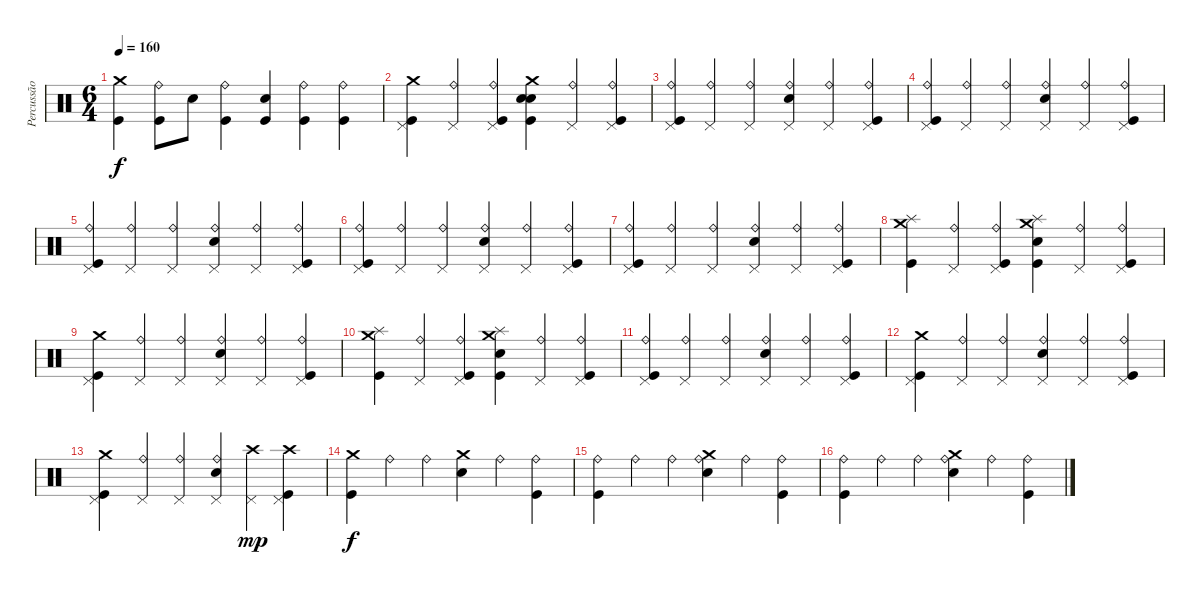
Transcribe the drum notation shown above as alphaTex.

\track ("Percussão" "Percussão") {instrument percussion}
\staff {score}
\articulation defaults
\ts (6 4)
\tempo 160
\clef neutral
\ks c
("Crash medium (hit)" "Kick (hit)").4{dy f balance 4} ("Ride (bell)" "Kick (hit)").8{balance 12} "Snare (hit) 2".8{balance 4} ("Ride (bell)" "Kick (hit)").4{balance 8} ("Kick (hit)" "Snare (hit) 2").4 ("Ride (bell)" "Kick (hit)").4 ("Ride (bell)" "Kick (hit)").4 |
("Crash medium (hit)" "Pedal Hi-Hat (hit)" "Kick (hit)").4 ("Ride (bell)" "Pedal Hi-Hat (hit)").4 ("Ride (bell)" "Pedal Hi-Hat (hit)" "Kick (hit)").4 ("Crash medium (hit)" "Snare (hit) 2" "Snare (hit) 2" "Kick (hit)").4 ("Ride (bell)" "Pedal Hi-Hat (hit)").4 ("Ride (bell)" "Pedal Hi-Hat (hit)" "Kick (hit)").4 |
("Ride (bell)" "Pedal Hi-Hat (hit)" "Kick (hit)").4 ("Ride (bell)" "Pedal Hi-Hat (hit)").4 ("Ride (bell)" "Pedal Hi-Hat (hit)").4 ("Ride (bell)" "Pedal Hi-Hat (hit)" "Snare (hit) 2").4 ("Ride (bell)" "Pedal Hi-Hat (hit)").4 ("Ride (bell)" "Pedal Hi-Hat (hit)" "Kick (hit)").4 |
("Ride (bell)" "Pedal Hi-Hat (hit)" "Kick (hit)").4 ("Ride (bell)" "Pedal Hi-Hat (hit)").4 ("Ride (bell)" "Pedal Hi-Hat (hit)").4 ("Ride (bell)" "Pedal Hi-Hat (hit)" "Snare (hit) 2").4 ("Ride (bell)" "Pedal Hi-Hat (hit)").4 ("Ride (bell)" "Pedal Hi-Hat (hit)" "Kick (hit)").4 |
("Ride (bell)" "Pedal Hi-Hat (hit)" "Kick (hit)").4 ("Ride (bell)" "Pedal Hi-Hat (hit)").4 ("Ride (bell)" "Pedal Hi-Hat (hit)").4 ("Ride (bell)" "Pedal Hi-Hat (hit)" "Snare (hit) 2").4 ("Ride (bell)" "Pedal Hi-Hat (hit)").4 ("Ride (bell)" "Pedal Hi-Hat (hit)" "Kick (hit)").4 |
("Ride (bell)" "Pedal Hi-Hat (hit)" "Kick (hit)").4 ("Ride (bell)" "Pedal Hi-Hat (hit)").4 ("Ride (bell)" "Pedal Hi-Hat (hit)").4 ("Ride (bell)" "Pedal Hi-Hat (hit)" "Snare (hit) 2").4 ("Ride (bell)" "Pedal Hi-Hat (hit)").4 ("Ride (bell)" "Pedal Hi-Hat (hit)" "Kick (hit)").4 |
("Ride (bell)" "Pedal Hi-Hat (hit)" "Kick (hit)").4 ("Ride (bell)" "Pedal Hi-Hat (hit)").4 ("Ride (bell)" "Pedal Hi-Hat (hit)").4 ("Ride (bell)" "Pedal Hi-Hat (hit)" "Snare (hit) 2").4 ("Ride (bell)" "Pedal Hi-Hat (hit)").4 ("Ride (bell)" "Pedal Hi-Hat (hit)" "Kick (hit)").4 |
("Crash medium (hit)" "Splash (hit)" "Kick (hit)").4 ("Ride (bell)" "Pedal Hi-Hat (hit)").4 ("Ride (bell)" "Pedal Hi-Hat (hit)" "Kick (hit)").4 ("Crash medium (hit)" "Splash (hit)" "Snare (hit) 2" "Kick (hit)").4 ("Ride (bell)" "Pedal Hi-Hat (hit)").4 ("Ride (bell)" "Pedal Hi-Hat (hit)" "Kick (hit)").4 |
("Crash medium (hit)" "Pedal Hi-Hat (hit)" "Kick (hit)").4 ("Ride (bell)" "Pedal Hi-Hat (hit)").4 ("Ride (bell)" "Pedal Hi-Hat (hit)").4 ("Ride (bell)" "Pedal Hi-Hat (hit)" "Snare (hit) 2").4 ("Ride (bell)" "Pedal Hi-Hat (hit)").4 ("Ride (bell)" "Pedal Hi-Hat (hit)" "Kick (hit)").4 |
("Crash medium (hit)" "Splash (hit)" "Kick (hit)").4 ("Ride (bell)" "Pedal Hi-Hat (hit)").4 ("Ride (bell)" "Pedal Hi-Hat (hit)" "Kick (hit)").4 ("Crash medium (hit)" "Splash (hit)" "Snare (hit) 2" "Kick (hit)").4 ("Ride (bell)" "Pedal Hi-Hat (hit)").4 ("Ride (bell)" "Pedal Hi-Hat (hit)" "Kick (hit)").4 |
("Ride (bell)" "Pedal Hi-Hat (hit)" "Kick (hit)").4 ("Ride (bell)" "Pedal Hi-Hat (hit)").4 ("Ride (bell)" "Pedal Hi-Hat (hit)").4 ("Ride (bell)" "Pedal Hi-Hat (hit)" "Snare (hit) 2").4 ("Ride (bell)" "Pedal Hi-Hat (hit)").4 ("Ride (bell)" "Pedal Hi-Hat (hit)" "Kick (hit)").4 |
("Crash medium (hit)" "Pedal Hi-Hat (hit)" "Kick (hit)").4 ("Ride (bell)" "Pedal Hi-Hat (hit)").4 ("Ride (bell)" "Pedal Hi-Hat (hit)").4 ("Ride (bell)" "Pedal Hi-Hat (hit)" "Snare (hit) 2").4 ("Ride (bell)" "Pedal Hi-Hat (hit)").4 ("Ride (bell)" "Pedal Hi-Hat (hit)" "Kick (hit)").4 |
("Crash medium (hit)" "Pedal Hi-Hat (hit)" "Kick (hit)").4 ("Ride (bell)" "Pedal Hi-Hat (hit)").4 ("Ride (bell)" "Pedal Hi-Hat (hit)").4 ("Ride (bell)" "Pedal Hi-Hat (hit)" "Snare (hit) 2").4 ("Crash high (hit)" "Pedal Hi-Hat (hit)").4{dy mp} ("Crash high (hit)" "Pedal Hi-Hat (hit)" "Kick (hit)").4 |
("Crash medium (hit)" "Kick (hit)").4{dy f} "Ride (bell)".4 "Ride (bell)".4 ("Crash medium (hit)" "Snare (hit) 2").4 "Ride (bell)".4 ("Ride (bell)" "Kick (hit)").4 |
("Ride (bell)" "Kick (hit)").4 "Ride (bell)".4 "Ride (bell)".4 ("Ride (bell)" "Crash medium (hit)" "Snare (hit) 2").4 "Ride (bell)".4 ("Ride (bell)" "Kick (hit)").4 |
("Ride (bell)" "Kick (hit)").4 "Ride (bell)".4 "Ride (bell)".4 ("Ride (bell)" "Crash medium (hit)" "Snare (hit) 2").4 "Ride (bell)".4 ("Ride (bell)" "Kick (hit)").4
